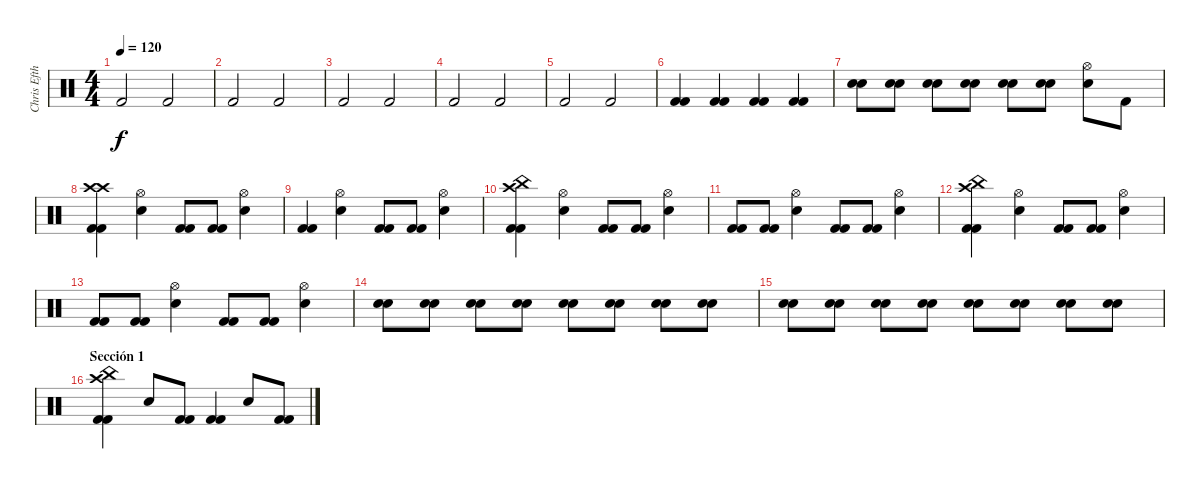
\track ("Chris Efthimiadis" "Chris Efth") {instrument percussion}
\staff {score}
\articulation defaults
\ts (4 4)
\tempo 120
\clef neutral
\ks c "Kick (hit) 2".2{dy f} "Kick (hit) 2".2
|
"Kick (hit) 2".2 "Kick (hit) 2".2 |
"Kick (hit) 2".2 "Kick (hit) 2".2 |
"Kick (hit) 2".2 "Kick (hit) 2".2 |
"Kick (hit) 2".2 "Kick (hit) 2".2 |
("Kick (hit) 2" "Kick (hit) 2").4{volume 16} ("Kick (hit) 2" "Kick (hit) 2").4 ("Kick (hit) 2" "Kick (hit) 2").4 ("Kick (hit) 2" "Kick (hit) 2").4 |
("Snare (hit) 2" "Snare (hit) 2").8 ("Snare (hit) 2" "Snare (hit) 2").8 ("Snare (hit) 2" "Snare (hit) 2").8 ("Snare (hit) 2" "Snare (hit) 2").8 ("Snare (hit) 2" "Snare (hit) 2").8 ("Snare (hit) 2" "Snare (hit) 2").8 ("Snare (hit) 2" "Hi-Hat (open)").8 "Kick (hit) 2".8 |
("Crash high (hit)" "Kick (hit) 2" "Kick (hit) 2" "Crash high (hit)").4 ("Snare (hit) 2" "Hi-Hat (open)").4 ("Kick (hit) 2" "Kick (hit) 2").8 ("Kick (hit) 2" "Kick (hit) 2").8 ("Snare (hit) 2" "Hi-Hat (open)").4 |
("Kick (hit) 2" "Kick (hit) 2").4 ("Hi-Hat (open)" "Snare (hit) 2").4 ("Kick (hit) 2" "Kick (hit) 2").8 ("Kick (hit) 2" "Kick (hit) 2").8 ("Hi-Hat (open)" "Snare (hit) 2").4 |
("Crash high (hit)" "Kick (hit) 2" "Kick (hit) 2" "China (hit)").4 ("Snare (hit) 2" "Hi-Hat (open)").4 ("Kick (hit) 2" "Kick (hit) 2").8 ("Kick (hit) 2" "Kick (hit) 2").8 ("Snare (hit) 2" "Hi-Hat (open)").4 |
("Kick (hit) 2" "Kick (hit) 2").8 ("Kick (hit) 2" "Kick (hit) 2").8 ("Snare (hit) 2" "Hi-Hat (open)").4 ("Kick (hit) 2" "Kick (hit) 2").8 ("Kick (hit) 2" "Kick (hit) 2").8 ("Snare (hit) 2" "Hi-Hat (open)").4 |
("Crash high (hit)" "Kick (hit) 2" "Kick (hit) 2" "China (hit)").4 ("Snare (hit) 2" "Hi-Hat (open)").4 ("Kick (hit) 2" "Kick (hit) 2").8 ("Kick (hit) 2" "Kick (hit) 2").8 ("Snare (hit) 2" "Hi-Hat (open)").4 |
("Kick (hit) 2" "Kick (hit) 2").8 ("Kick (hit) 2" "Kick (hit) 2").8 ("Snare (hit) 2" "Hi-Hat (open)").4 ("Kick (hit) 2" "Kick (hit) 2").8 ("Kick (hit) 2" "Kick (hit) 2").8 ("Hi-Hat (open)" "Snare (hit) 2").4 |
("Snare (hit) 2" "Snare (hit) 2").8 ("Snare (hit) 2" "Snare (hit) 2").8 ("Snare (hit) 2" "Snare (hit) 2").8 ("Snare (hit) 2" "Snare (hit) 2").8 ("Snare (hit) 2" "Snare (hit) 2").8 ("Snare (hit) 2" "Snare (hit) 2").8 ("Snare (hit) 2" "Snare (hit) 2").8 ("Snare (hit) 2" "Snare (hit) 2").8 |
("Snare (hit) 2" "Snare (hit) 2").8 ("Snare (hit) 2" "Snare (hit) 2").8 ("Snare (hit) 2" "Snare (hit) 2").8 ("Snare (hit) 2" "Snare (hit) 2").8 ("Snare (hit) 2" "Snare (hit) 2").8 ("Snare (hit) 2" "Snare (hit) 2").8 ("Snare (hit) 2" "Snare (hit) 2").8 ("Snare (hit) 2" "Snare (hit) 2").8 |
\section ("" "Sección 1")
("Kick (hit) 2" "Kick (hit) 2" "China (hit)" "Crash high (hit)").4 "Snare (hit) 2".8 ("Kick (hit) 2" "Kick (hit) 2").8 ("Kick (hit) 2" "Kick (hit) 2").4 "Snare (hit) 2".8 ("Kick (hit) 2" "Kick (hit) 2").8
